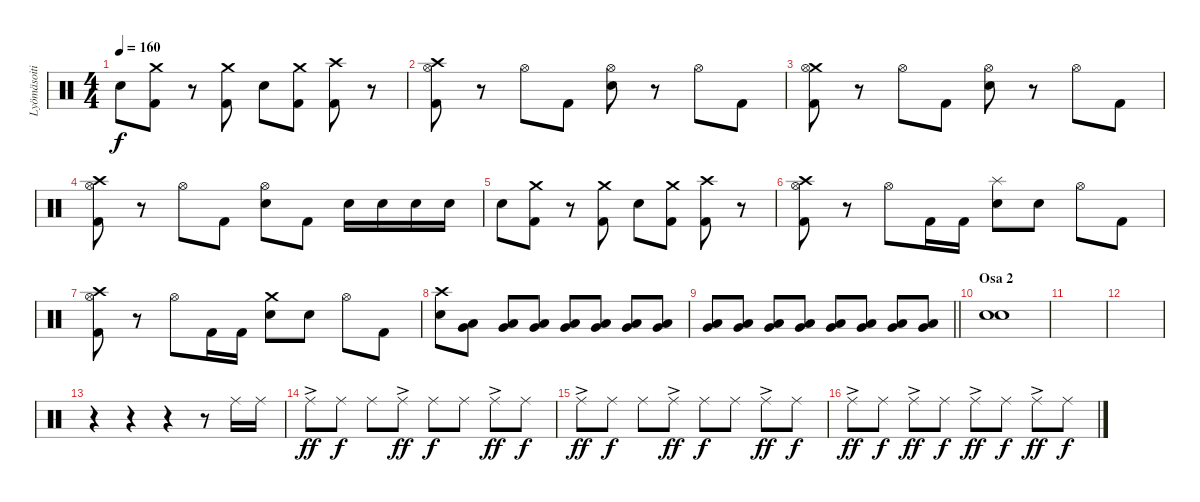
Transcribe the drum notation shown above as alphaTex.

\track ("Lyömäsoitin" "Lyömäsoiti") {instrument percussion}
\staff {score}
\articulation defaults
\ts (4 4)
\tempo 160
\clef neutral
\ks c "Snare (hit) 2".8{dy f}
("Crash medium (hit)" "Kick (hit) 2").8 r.8 ("Crash medium (hit)" "Kick (hit) 2").8 "Snare (hit) 2".8 ("Crash medium (hit)" "Kick (hit) 2").8 ("Crash high (hit)" "Kick (hit) 2").8 r.8 |
("Crash high (hit)" "Hi-Hat (open)" "Kick (hit) 2").8 r.8 "Hi-Hat (open)".8 "Kick (hit) 2".8 ("Snare (hit) 2" "Hi-Hat (open)").8 r.8 "Hi-Hat (open)".8 "Kick (hit) 2".8 |
("Crash medium (hit)" "Hi-Hat (open)" "Kick (hit) 2").8 r.8 "Hi-Hat (open)".8 "Kick (hit) 2".8 ("Snare (hit) 2" "Hi-Hat (open)").8 r.8 "Hi-Hat (open)".8 "Kick (hit) 2".8 |
("Crash high (hit)" "Hi-Hat (open)" "Kick (hit) 2").8 r.8 "Hi-Hat (open)".8 "Kick (hit) 2".8 ("Snare (hit) 2" "Hi-Hat (open)").8 "Kick (hit) 2".8 "Snare (hit) 2".16 "Snare (hit) 2".16 "Snare (hit) 2".16 "Snare (hit) 2".16 |
"Snare (hit) 2".8 ("Crash medium (hit)" "Kick (hit) 2").8 r.8 ("Crash medium (hit)" "Kick (hit) 2").8 "Snare (hit) 2".8 ("Crash medium (hit)" "Kick (hit) 2").8 ("Crash high (hit)" "Kick (hit) 2").8 r.8 |
("Crash high (hit)" "Hi-Hat (open)" "Kick (hit) 2").8 r.8 "Hi-Hat (open)".8 "Kick (hit) 2".16 "Kick (hit) 2".16 ("Splash (hit)" "Snare (hit) 2").8 "Snare (hit) 2".8 "Hi-Hat (open)".8 "Kick (hit) 2".8 |
("Crash high (hit)" "Hi-Hat (open)" "Kick (hit) 2").8 r.8 "Hi-Hat (open)".8 "Kick (hit) 2".16 "Kick (hit) 2".16 ("Crash medium (hit)" "Snare (hit) 2").8 "Snare (hit) 2".8 "Hi-Hat (open)".8 "Kick (hit) 2".8 |
("Crash high (hit)" "Snare (hit) 2").8 ("Low Tom (hit)" "Very Low Tom (hit)").8 ("Low Tom (hit)" "Very Low Tom (hit)").8 ("Low Tom (hit)" "Very Low Tom (hit)").8 ("Low Tom (hit)" "Very Low Tom (hit)").8 ("Low Tom (hit)" "Very Low Tom (hit)").8 ("Low Tom (hit)" "Very Low Tom (hit)").8 ("Low Tom (hit)" "Very Low Tom (hit)").8 |
\barLineRight lightlight
("Low Tom (hit)" "Very Low Tom (hit)").8 ("Low Tom (hit)" "Very Low Tom (hit)").8 ("Low Tom (hit)" "Very Low Tom (hit)").8 ("Low Tom (hit)" "Very Low Tom (hit)").8 ("Low Tom (hit)" "Very Low Tom (hit)").8 ("Low Tom (hit)" "Very Low Tom (hit)").8 ("Low Tom (hit)" "Very Low Tom (hit)").8 ("Low Tom (hit)" "Very Low Tom (hit)").8 |
\section ("" "Osa 2")
("Snare (hit) 2" "Snare (hit) 2").1 |
|
|
r.4 r.4 r.4 r.8 "Ride (middle)".16 "Ride (middle)".16 |
"Ride (middle)"{ac}.8{dy ff} "Ride (middle)".8{dy f} "Ride (middle)".8 "Ride (middle)"{ac}.8{dy ff} "Ride (middle)".8{dy f} "Ride (middle)".8 "Ride (middle)"{ac}.8{dy ff} "Ride (middle)".8{dy f} |
"Ride (middle)"{ac}.8{dy ff} "Ride (middle)".8{dy f} "Ride (middle)".8 "Ride (middle)"{ac}.8{dy ff} "Ride (middle)".8{dy f} "Ride (middle)".8 "Ride (middle)"{ac}.8{dy ff} "Ride (middle)".8{dy f} |
"Ride (middle)"{ac}.8{dy ff} "Ride (middle)".8{dy f} "Ride (middle)"{ac}.8{dy ff} "Ride (middle)".8{dy f} "Ride (middle)"{ac}.8{dy ff} "Ride (middle)".8{dy f} "Ride (middle)"{ac}.8{dy ff} "Ride (middle)".8{dy f}
